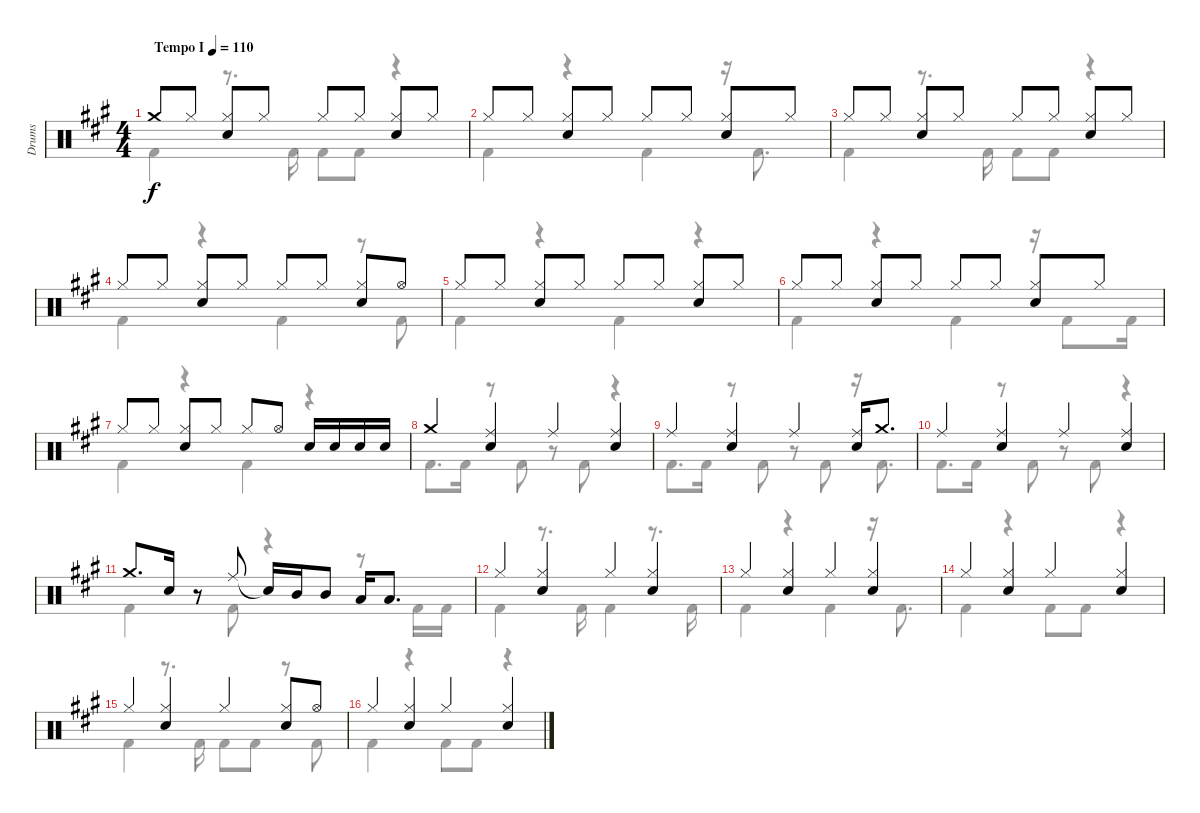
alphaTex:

\track ("Drums" "Drums") {instrument percussion}
\staff {score}
\articulation defaults
\voice
\ts (4 4)
\tempo (110 "Tempo I")
\clef neutral
\ks a "Crash medium (hit)".8{dy f} "Hi-Hat (closed)".8
("Hi-Hat (closed)" "Snare (hit) 2").8 "Hi-Hat (closed)".8 "Hi-Hat (closed)".8 "Hi-Hat (closed)".8 ("Hi-Hat (closed)" "Snare (hit) 2").8 "Hi-Hat (closed)".8 |
"Hi-Hat (closed)".8 "Hi-Hat (closed)".8 ("Hi-Hat (closed)" "Snare (hit) 2").8 "Hi-Hat (closed)".8 "Hi-Hat (closed)".8 "Hi-Hat (closed)".8 ("Hi-Hat (closed)" "Snare (hit) 2").8 "Hi-Hat (closed)".8 |
"Hi-Hat (closed)".8 "Hi-Hat (closed)".8 ("Hi-Hat (closed)" "Snare (hit) 2").8 "Hi-Hat (closed)".8 "Hi-Hat (closed)".8 "Hi-Hat (closed)".8 ("Hi-Hat (closed)" "Snare (hit) 2").8 "Hi-Hat (closed)".8 |
"Hi-Hat (closed)".8 "Hi-Hat (closed)".8 ("Hi-Hat (closed)" "Snare (hit) 2").8 "Hi-Hat (closed)".8 "Hi-Hat (closed)".8 "Hi-Hat (closed)".8 ("Hi-Hat (closed)" "Snare (hit) 2").8 "Hi-Hat (open)".8 |
"Hi-Hat (closed)".8 "Hi-Hat (closed)".8 ("Hi-Hat (closed)" "Snare (hit) 2").8 "Hi-Hat (closed)".8 "Hi-Hat (closed)".8 "Hi-Hat (closed)".8 ("Hi-Hat (closed)" "Snare (hit) 2").8 "Hi-Hat (closed)".8 |
"Hi-Hat (closed)".8 "Hi-Hat (closed)".8 ("Hi-Hat (closed)" "Snare (hit) 2").8 "Hi-Hat (closed)".8 "Hi-Hat (closed)".8 "Hi-Hat (closed)".8 ("Hi-Hat (closed)" "Snare (hit) 2").8 "Hi-Hat (closed)".8 |
"Hi-Hat (closed)".8 "Hi-Hat (closed)".8 ("Hi-Hat (closed)" "Snare (hit) 2").8 "Hi-Hat (closed)".8 "Hi-Hat (closed)".8 "Hi-Hat (open)".8 "Snare (hit) 2".16 "Snare (hit) 2".16 "Snare (hit) 2".16 "Snare (hit) 2".16 |
"Crash medium (hit)".4 ("Ride (middle)" "Snare (hit) 2").4 "Ride (middle)".4 ("Ride (middle)" "Snare (hit) 2").4 |
"Ride (middle)".4 ("Ride (middle)" "Snare (hit) 2").4 "Ride (middle)".4 ("Ride (middle)" "Snare (hit) 2").16 "Crash medium (hit)".8{d} |
"Ride (middle)".4 ("Ride (middle)" "Snare (hit) 2").4 "Ride (middle)".4 ("Ride (middle)" "Snare (hit) 2").4 |
"Crash medium (hit)".8{d} "Snare (hit) 2".16 r.8 "Ride (middle)".8 "Snare (hit)"{t}.16 "Mid Tom (hit)".16 "Mid Tom (hit)".8 "Low Tom (hit)".16 "Low Tom (hit)".8{d} |
"Hi-Hat (closed)".4 ("Hi-Hat (closed)" "Snare (hit) 2").4 "Hi-Hat (closed)".4 ("Hi-Hat (closed)" "Snare (hit) 2").4 |
"Hi-Hat (closed)".4 ("Hi-Hat (closed)" "Snare (hit) 2").4 "Hi-Hat (closed)".4 ("Hi-Hat (closed)" "Snare (hit) 2").4 |
"Hi-Hat (closed)".4 ("Hi-Hat (closed)" "Snare (hit) 2").4 "Hi-Hat (closed)".4 ("Hi-Hat (closed)" "Snare (hit) 2").4 |
"Hi-Hat (closed)".4 ("Hi-Hat (closed)" "Snare (hit) 2").4 "Hi-Hat (closed)".4 ("Hi-Hat (closed)" "Snare (hit) 2").8 "Hi-Hat (open)".8 |
"Hi-Hat (closed)".4 ("Hi-Hat (closed)" "Snare (hit) 2").4 "Hi-Hat (closed)".4 ("Hi-Hat (closed)" "Snare (hit) 2").4
\voice
\clef neutral
\ottava regular
\simile none
\ks a "Kick (hit) 2".4{dy f}
r.8{d} "Kick (hit) 2".16 "Kick (hit) 2".8 "Kick (hit) 2".8 r.4 |
"Kick (hit) 2".4 r.4 "Kick (hit) 2".4 r.16 "Kick (hit) 2".8{d} |
"Kick (hit) 2".4 r.8{d} "Kick (hit) 2".16 "Kick (hit) 2".8 "Kick (hit) 2".8 r.4 |
"Kick (hit) 2".4 r.4 "Kick (hit) 2".4 r.8 "Kick (hit) 2".8 |
"Kick (hit) 2".4 r.4 "Kick (hit) 2".4 r.4 |
"Kick (hit) 2".4 r.4 "Kick (hit) 2".4 r.16 "Kick (hit) 2".8 "Kick (hit) 2".16 |
"Kick (hit) 2".4 r.4 "Kick (hit) 2".4 r.4 |
"Kick (hit) 2".8{d} "Kick (hit) 2".16 r.8 "Kick (hit) 2".8 r.8 "Kick (hit) 2".8 r.4 |
"Kick (hit) 2".8{d} "Kick (hit) 2".16 r.8 "Kick (hit) 2".8 r.8 "Kick (hit) 2".8 r.16 "Kick (hit) 2".8{d} |
"Kick (hit) 2".8{d} "Kick (hit) 2".16 r.8 "Kick (hit) 2".8 r.8 "Kick (hit) 2".8 r.4 |
"Kick (hit) 2".4 r.8 "Kick (hit) 2".8 r.4 r.8 "Kick (hit) 2".16 "Kick (hit) 2".16 |
"Kick (hit) 2".4 r.8{d} "Kick (hit) 2".16 "Kick (hit) 2".4 r.8{d} "Kick (hit) 2".16 |
"Kick (hit) 2".4 r.4 "Kick (hit) 2".4 r.16 "Kick (hit) 2".8{d} |
"Kick (hit) 2".4 r.4 "Kick (hit) 2".8 "Kick (hit) 2".8 r.4 |
"Kick (hit) 2".4 r.8{d} "Kick (hit) 2".16 "Kick (hit) 2".8 "Kick (hit) 2".8 r.8 "Kick (hit) 2".8 |
"Kick (hit) 2".4 r.4 "Kick (hit) 2".8 "Kick (hit) 2".8 r.4
